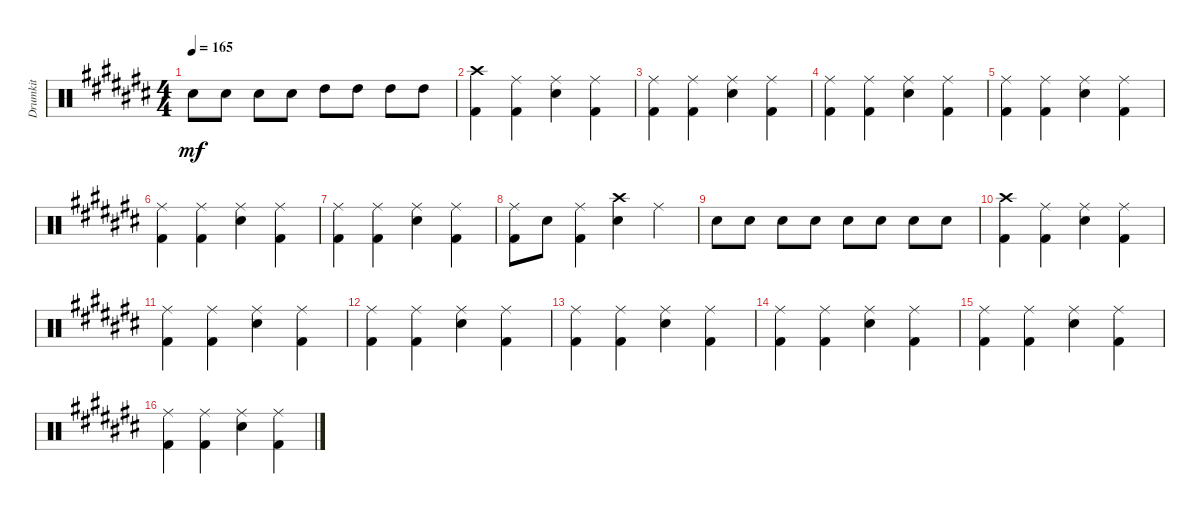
\track ("Drumkit" "Drumkit") {instrument percussion}
\staff {score}
\articulation defaults
\ts (4 4)
\tempo 165
\clef neutral
\ks c# "Snare (hit) 2".8{dy mf} "Snare (hit) 2".8 "Snare (hit) 2".8 "Snare (hit) 2".8 "High Tom (hit)".8 "High Tom (hit)".8 "High Tom (hit)".8 "High Tom (hit)".8
|
("Kick (hit) 2" "Crash high (hit)").4 ("Kick (hit) 2" "Ride (middle)").4 ("Snare (hit) 2" "Ride (middle)").4 ("Kick (hit) 2" "Ride (middle)").4 |
("Kick (hit) 2" "Ride (middle)").4 ("Kick (hit) 2" "Ride (middle)").4 ("Snare (hit) 2" "Ride (middle)").4 ("Kick (hit) 2" "Ride (middle)").4 |
("Kick (hit) 2" "Ride (middle)").4 ("Kick (hit) 2" "Ride (middle)").4 ("Snare (hit) 2" "Ride (middle)").4 ("Kick (hit) 2" "Ride (middle)").4 |
("Kick (hit) 2" "Ride (middle)").4 ("Kick (hit) 2" "Ride (middle)").4 ("Snare (hit) 2" "Ride (middle)").4 ("Kick (hit) 2" "Ride (middle)").4 |
("Kick (hit) 2" "Ride (middle)").4 ("Kick (hit) 2" "Ride (middle)").4 ("Snare (hit) 2" "Ride (middle)").4 ("Kick (hit) 2" "Ride (middle)").4 |
("Kick (hit) 2" "Ride (middle)").4 ("Kick (hit) 2" "Ride (middle)").4 ("Snare (hit) 2" "Ride (middle)").4 ("Kick (hit) 2" "Ride (middle)").4 |
("Kick (hit) 2" "Ride (middle)").8 "Snare (hit) 2".8 ("Kick (hit) 2" "Ride (middle)").4 ("Snare (hit) 2" "Crash high (hit)").4 "Ride (middle)".4 |
"Snare (hit) 2".8 "Snare (hit) 2".8 "Snare (hit) 2".8 "Snare (hit) 2".8 "Snare (hit) 2".8 "Snare (hit) 2".8 "Snare (hit) 2".8 "Snare (hit) 2".8 |
("Kick (hit) 2" "Crash high (hit)").4 ("Kick (hit) 2" "Ride (middle)").4 ("Snare (hit) 2" "Ride (middle)").4 ("Kick (hit) 2" "Ride (middle)").4 |
("Kick (hit) 2" "Ride (middle)").4 ("Kick (hit) 2" "Ride (middle)").4 ("Snare (hit) 2" "Ride (middle)").4 ("Kick (hit) 2" "Ride (middle)").4 |
("Kick (hit) 2" "Ride (middle)").4 ("Kick (hit) 2" "Ride (middle)").4 ("Snare (hit) 2" "Ride (middle)").4 ("Kick (hit) 2" "Ride (middle)").4 |
("Kick (hit) 2" "Ride (middle)").4 ("Kick (hit) 2" "Ride (middle)").4 ("Snare (hit) 2" "Ride (middle)").4 ("Kick (hit) 2" "Ride (middle)").4 |
("Kick (hit) 2" "Ride (middle)").4 ("Kick (hit) 2" "Ride (middle)").4 ("Snare (hit) 2" "Ride (middle)").4 ("Kick (hit) 2" "Ride (middle)").4 |
("Kick (hit) 2" "Ride (middle)").4 ("Kick (hit) 2" "Ride (middle)").4 ("Snare (hit) 2" "Ride (middle)").4 ("Kick (hit) 2" "Ride (middle)").4 |
("Kick (hit) 2" "Ride (middle)").4 ("Kick (hit) 2" "Ride (middle)").4 ("Snare (hit) 2" "Ride (middle)").4 ("Kick (hit) 2" "Ride (middle)").4
